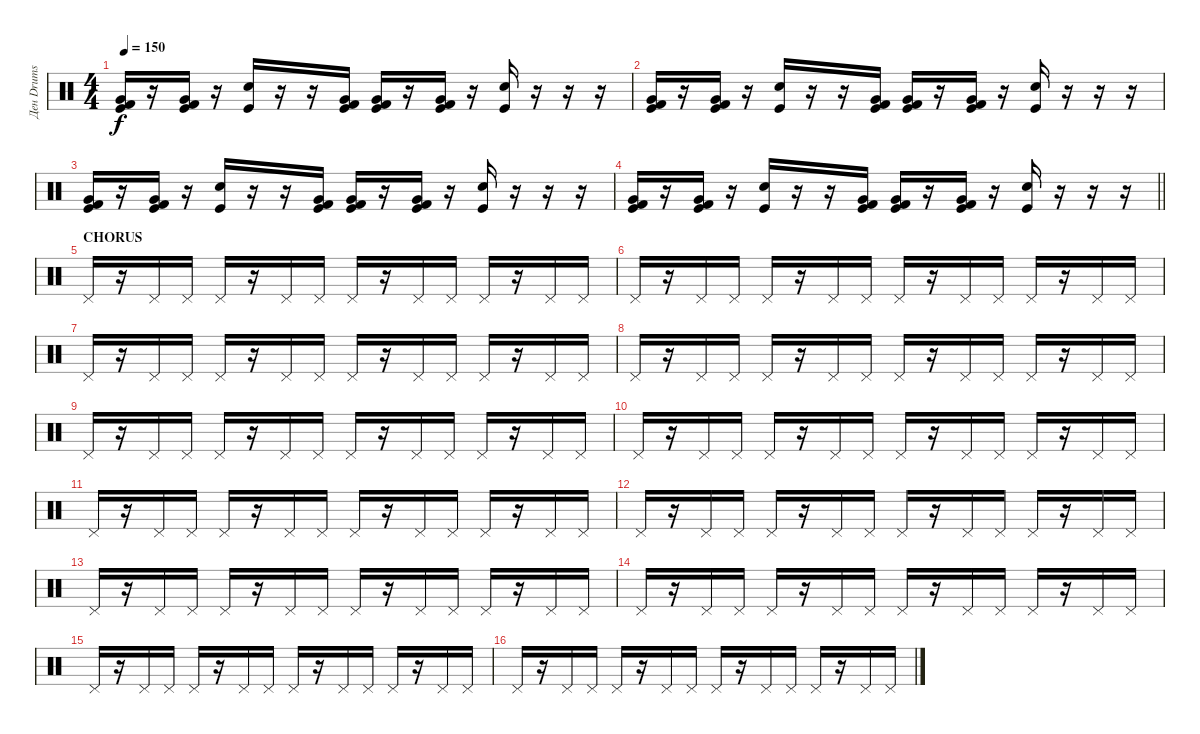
\track ("Ден Drums" "Ден Drums") {instrument percussion}
\staff {score}
\articulation defaults
\ts (4 4)
\tempo 150
\clef neutral
\ks c
("Very Low Tom (hit)" "Kick (hit) 2" "Kick (hit)").16{dy f} r.16 ("Very Low Tom (hit)" "Kick (hit) 2" "Kick (hit)").16 r.16 ("Electric Snare (hit)" "Kick (hit)").16 r.16 r.16 ("Very Low Tom (hit)" "Kick (hit) 2" "Kick (hit)").16 ("Very Low Tom (hit)" "Kick (hit) 2" "Kick (hit)").16 r.16 ("Very Low Tom (hit)" "Kick (hit) 2" "Kick (hit)").16 r.16 ("Electric Snare (hit)" "Kick (hit)").16 r.16 r.16 r.16 |
("Very Low Tom (hit)" "Kick (hit) 2" "Kick (hit)").16 r.16 ("Very Low Tom (hit)" "Kick (hit) 2" "Kick (hit)").16 r.16 ("Electric Snare (hit)" "Kick (hit)").16 r.16 r.16 ("Very Low Tom (hit)" "Kick (hit) 2" "Kick (hit)").16 ("Very Low Tom (hit)" "Kick (hit) 2" "Kick (hit)").16 r.16 ("Very Low Tom (hit)" "Kick (hit) 2" "Kick (hit)").16 r.16 ("Electric Snare (hit)" "Kick (hit)").16 r.16 r.16 r.16 |
("Very Low Tom (hit)" "Kick (hit) 2" "Kick (hit)").16 r.16 ("Very Low Tom (hit)" "Kick (hit) 2" "Kick (hit)").16 r.16 ("Electric Snare (hit)" "Kick (hit)").16 r.16 r.16 ("Very Low Tom (hit)" "Kick (hit) 2" "Kick (hit)").16 ("Very Low Tom (hit)" "Kick (hit) 2" "Kick (hit)").16 r.16 ("Very Low Tom (hit)" "Kick (hit) 2" "Kick (hit)").16 r.16 ("Electric Snare (hit)" "Kick (hit)").16 r.16 r.16 r.16 |
\barLineRight lightlight
("Very Low Tom (hit)" "Kick (hit) 2" "Kick (hit)").16 r.16 ("Very Low Tom (hit)" "Kick (hit) 2" "Kick (hit)").16 r.16 ("Electric Snare (hit)" "Kick (hit)").16 r.16 r.16 ("Very Low Tom (hit)" "Kick (hit) 2" "Kick (hit)").16 ("Very Low Tom (hit)" "Kick (hit) 2" "Kick (hit)").16 r.16 ("Very Low Tom (hit)" "Kick (hit) 2" "Kick (hit)").16 r.16 ("Electric Snare (hit)" "Kick (hit)").16 r.16 r.16 r.16 |
\section ("" "CHORUS")
"Pedal Hi-Hat (hit)".16{volume 6} r.16 "Pedal Hi-Hat (hit)".16 "Pedal Hi-Hat (hit)".16 "Pedal Hi-Hat (hit)".16 r.16 "Pedal Hi-Hat (hit)".16 "Pedal Hi-Hat (hit)".16 "Pedal Hi-Hat (hit)".16 r.16 "Pedal Hi-Hat (hit)".16 "Pedal Hi-Hat (hit)".16 "Pedal Hi-Hat (hit)".16 r.16 "Pedal Hi-Hat (hit)".16 "Pedal Hi-Hat (hit)".16 |
"Pedal Hi-Hat (hit)".16 r.16 "Pedal Hi-Hat (hit)".16 "Pedal Hi-Hat (hit)".16 "Pedal Hi-Hat (hit)".16 r.16 "Pedal Hi-Hat (hit)".16 "Pedal Hi-Hat (hit)".16 "Pedal Hi-Hat (hit)".16 r.16 "Pedal Hi-Hat (hit)".16 "Pedal Hi-Hat (hit)".16 "Pedal Hi-Hat (hit)".16 r.16 "Pedal Hi-Hat (hit)".16 "Pedal Hi-Hat (hit)".16 |
"Pedal Hi-Hat (hit)".16 r.16 "Pedal Hi-Hat (hit)".16 "Pedal Hi-Hat (hit)".16 "Pedal Hi-Hat (hit)".16 r.16 "Pedal Hi-Hat (hit)".16 "Pedal Hi-Hat (hit)".16 "Pedal Hi-Hat (hit)".16 r.16 "Pedal Hi-Hat (hit)".16 "Pedal Hi-Hat (hit)".16 "Pedal Hi-Hat (hit)".16 r.16 "Pedal Hi-Hat (hit)".16 "Pedal Hi-Hat (hit)".16 |
"Pedal Hi-Hat (hit)".16 r.16 "Pedal Hi-Hat (hit)".16 "Pedal Hi-Hat (hit)".16 "Pedal Hi-Hat (hit)".16 r.16 "Pedal Hi-Hat (hit)".16 "Pedal Hi-Hat (hit)".16 "Pedal Hi-Hat (hit)".16 r.16 "Pedal Hi-Hat (hit)".16 "Pedal Hi-Hat (hit)".16 "Pedal Hi-Hat (hit)".16 r.16 "Pedal Hi-Hat (hit)".16 "Pedal Hi-Hat (hit)".16 |
"Pedal Hi-Hat (hit)".16 r.16 "Pedal Hi-Hat (hit)".16 "Pedal Hi-Hat (hit)".16 "Pedal Hi-Hat (hit)".16 r.16 "Pedal Hi-Hat (hit)".16 "Pedal Hi-Hat (hit)".16 "Pedal Hi-Hat (hit)".16 r.16 "Pedal Hi-Hat (hit)".16 "Pedal Hi-Hat (hit)".16 "Pedal Hi-Hat (hit)".16 r.16 "Pedal Hi-Hat (hit)".16 "Pedal Hi-Hat (hit)".16 |
"Pedal Hi-Hat (hit)".16 r.16 "Pedal Hi-Hat (hit)".16 "Pedal Hi-Hat (hit)".16 "Pedal Hi-Hat (hit)".16 r.16 "Pedal Hi-Hat (hit)".16 "Pedal Hi-Hat (hit)".16 "Pedal Hi-Hat (hit)".16 r.16 "Pedal Hi-Hat (hit)".16 "Pedal Hi-Hat (hit)".16 "Pedal Hi-Hat (hit)".16 r.16 "Pedal Hi-Hat (hit)".16 "Pedal Hi-Hat (hit)".16 |
"Pedal Hi-Hat (hit)".16 r.16 "Pedal Hi-Hat (hit)".16 "Pedal Hi-Hat (hit)".16 "Pedal Hi-Hat (hit)".16 r.16 "Pedal Hi-Hat (hit)".16 "Pedal Hi-Hat (hit)".16 "Pedal Hi-Hat (hit)".16 r.16 "Pedal Hi-Hat (hit)".16 "Pedal Hi-Hat (hit)".16 "Pedal Hi-Hat (hit)".16 r.16 "Pedal Hi-Hat (hit)".16 "Pedal Hi-Hat (hit)".16 |
"Pedal Hi-Hat (hit)".16 r.16 "Pedal Hi-Hat (hit)".16 "Pedal Hi-Hat (hit)".16 "Pedal Hi-Hat (hit)".16 r.16 "Pedal Hi-Hat (hit)".16 "Pedal Hi-Hat (hit)".16 "Pedal Hi-Hat (hit)".16 r.16 "Pedal Hi-Hat (hit)".16 "Pedal Hi-Hat (hit)".16 "Pedal Hi-Hat (hit)".16 r.16 "Pedal Hi-Hat (hit)".16 "Pedal Hi-Hat (hit)".16 |
"Pedal Hi-Hat (hit)".16 r.16 "Pedal Hi-Hat (hit)".16 "Pedal Hi-Hat (hit)".16 "Pedal Hi-Hat (hit)".16 r.16 "Pedal Hi-Hat (hit)".16 "Pedal Hi-Hat (hit)".16 "Pedal Hi-Hat (hit)".16 r.16 "Pedal Hi-Hat (hit)".16 "Pedal Hi-Hat (hit)".16 "Pedal Hi-Hat (hit)".16 r.16 "Pedal Hi-Hat (hit)".16 "Pedal Hi-Hat (hit)".16 |
"Pedal Hi-Hat (hit)".16 r.16 "Pedal Hi-Hat (hit)".16 "Pedal Hi-Hat (hit)".16 "Pedal Hi-Hat (hit)".16 r.16 "Pedal Hi-Hat (hit)".16 "Pedal Hi-Hat (hit)".16 "Pedal Hi-Hat (hit)".16 r.16 "Pedal Hi-Hat (hit)".16 "Pedal Hi-Hat (hit)".16 "Pedal Hi-Hat (hit)".16 r.16 "Pedal Hi-Hat (hit)".16 "Pedal Hi-Hat (hit)".16 |
"Pedal Hi-Hat (hit)".16 r.16 "Pedal Hi-Hat (hit)".16 "Pedal Hi-Hat (hit)".16 "Pedal Hi-Hat (hit)".16 r.16 "Pedal Hi-Hat (hit)".16 "Pedal Hi-Hat (hit)".16 "Pedal Hi-Hat (hit)".16 r.16 "Pedal Hi-Hat (hit)".16 "Pedal Hi-Hat (hit)".16 "Pedal Hi-Hat (hit)".16 r.16 "Pedal Hi-Hat (hit)".16 "Pedal Hi-Hat (hit)".16 |
"Pedal Hi-Hat (hit)".16 r.16 "Pedal Hi-Hat (hit)".16 "Pedal Hi-Hat (hit)".16 "Pedal Hi-Hat (hit)".16 r.16 "Pedal Hi-Hat (hit)".16 "Pedal Hi-Hat (hit)".16 "Pedal Hi-Hat (hit)".16 r.16 "Pedal Hi-Hat (hit)".16 "Pedal Hi-Hat (hit)".16 "Pedal Hi-Hat (hit)".16 r.16 "Pedal Hi-Hat (hit)".16 "Pedal Hi-Hat (hit)".16
